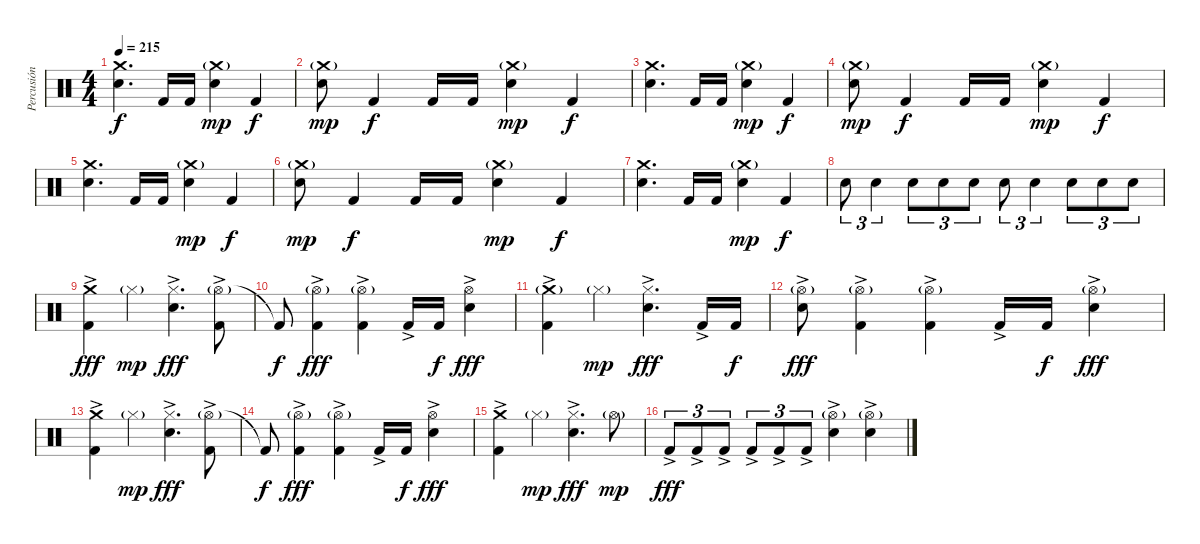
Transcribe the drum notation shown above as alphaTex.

\track ("Percusión" "Percusión") {instrument percussion}
\staff {score}
\articulation defaults
\ts (4 4)
\tempo 215
\clef neutral
\ks c
("Crash medium (hit)" "Snare (hit) 2").4{d dy f} "Kick (hit) 2".16 "Kick (hit) 2".16 ("Crash medium (hit)"{g} "Snare (hit) 2").4{dy mp} "Kick (hit) 2".4{dy f} |
("Crash medium (hit)"{g} "Snare (hit) 2").8{dy mp} "Kick (hit) 2".4{dy f} "Kick (hit) 2".16 "Kick (hit) 2".16 ("Crash medium (hit)"{g} "Snare (hit) 2").4{dy mp} "Kick (hit) 2".4{dy f} |
("Crash medium (hit)" "Snare (hit) 2").4{d} "Kick (hit) 2".16 "Kick (hit) 2".16 ("Crash medium (hit)"{g} "Snare (hit) 2").4{dy mp} "Kick (hit) 2".4{dy f} |
("Crash medium (hit)"{g} "Snare (hit) 2").8{dy mp} "Kick (hit) 2".4{dy f} "Kick (hit) 2".16 "Kick (hit) 2".16 ("Crash medium (hit)"{g} "Snare (hit) 2").4{dy mp} "Kick (hit) 2".4{dy f} |
("Crash medium (hit)" "Snare (hit) 2").4{d} "Kick (hit) 2".16 "Kick (hit) 2".16 ("Crash medium (hit)"{g} "Snare (hit) 2").4{dy mp} "Kick (hit) 2".4{dy f} |
("Crash medium (hit)"{g} "Snare (hit) 2").8{dy mp} "Kick (hit) 2".4{dy f} "Kick (hit) 2".16 "Kick (hit) 2".16 ("Crash medium (hit)"{g} "Snare (hit) 2").4{dy mp} "Kick (hit) 2".4{dy f} |
("Crash medium (hit)" "Snare (hit) 2").4{d} "Kick (hit) 2".16 "Kick (hit) 2".16 ("Crash medium (hit)"{g} "Snare (hit) 2").4{dy mp} "Kick (hit) 2".4{dy f} |
"Snare (hit) 2".8{tu (3 2)} "Snare (hit) 2".4{tu (3 2)} "Snare (hit) 2".8{tu (3 2)} "Snare (hit) 2".8{tu (3 2)} "Snare (hit) 2".8{tu (3 2)} "Snare (hit) 2".8{tu (3 2)} "Snare (hit) 2".4{tu (3 2)} "Snare (hit) 2".8{tu (3 2)} "Snare (hit) 2".8{tu (3 2)} "Snare (hit) 2".8{tu (3 2)} |
("Crash medium (hit)" "Kick (hit) 2"{ac}).4{dy fff} "Hi-Hat (closed)"{g}.4{dy mp} ("Hi-Hat (closed)" "Snare (hit) 2"{ac}).4{d dy fff} ("Hi-Hat (open)"{g} "Kick (hit) 2"{ac}).8 |
"Kick (hit) 2"{t}.8{dy f} ("Hi-Hat (open)"{g} "Kick (hit) 2"{ac}).4{dy fff} ("Hi-Hat (open)"{g} "Kick (hit) 2"{ac}).4 "Kick (hit) 2"{ac}.16 "Kick (hit) 2".16{dy f} ("Hi-Hat (open)" "Snare (hit) 2"{ac}).4{dy fff} |
("Crash medium (hit)"{g} "Kick (hit) 2"{ac}).4 "Hi-Hat (closed)"{g}.4{dy mp} ("Hi-Hat (closed)" "Snare (hit) 2"{ac}).4{d dy fff} "Kick (hit) 2"{ac}.16 "Kick (hit) 2".16{dy f} |
("Hi-Hat (open)"{g} "Snare (hit) 2"{ac}).8{dy fff} ("Hi-Hat (open)"{g} "Kick (hit) 2"{ac}).4 ("Hi-Hat (open)"{g} "Kick (hit) 2"{ac}).4 "Kick (hit) 2"{ac}.16 "Kick (hit) 2".16{dy f} ("Hi-Hat (open)"{g} "Snare (hit) 2"{ac}).4{dy fff} |
("Crash medium (hit)" "Kick (hit) 2"{ac}).4 "Hi-Hat (closed)"{g}.4{dy mp} ("Hi-Hat (closed)" "Snare (hit) 2"{ac}).4{d dy fff} ("Hi-Hat (open)"{g} "Kick (hit) 2"{ac}).8 |
"Kick (hit) 2"{t}.8{dy f} ("Hi-Hat (open)"{g} "Kick (hit) 2"{ac}).4{dy fff} ("Hi-Hat (open)"{g} "Kick (hit) 2"{ac}).4 "Kick (hit) 2"{ac}.16 "Kick (hit) 2".16{dy f} ("Hi-Hat (open)" "Snare (hit) 2"{ac}).4{dy fff} |
("Crash medium (hit)" "Kick (hit) 2"{ac}).4 "Hi-Hat (closed)"{g}.4{dy mp} ("Hi-Hat (closed)" "Snare (hit) 2"{ac}).4{d dy fff} "Hi-Hat (open)"{g}.8{dy mp} |
"Kick (hit) 2"{ac}.8{tu (3 2) dy fff} "Kick (hit) 2"{ac}.8{tu (3 2)} "Kick (hit) 2"{ac}.8{tu (3 2)} "Kick (hit) 2"{ac}.8{tu (3 2)} "Kick (hit) 2"{ac}.8{tu (3 2)} "Kick (hit) 2"{ac}.8{tu (3 2)} ("Hi-Hat (open)"{g} "Snare (hit) 2"{ac}).4 ("Hi-Hat (open)"{g} "Snare (hit) 2"{ac}).4
